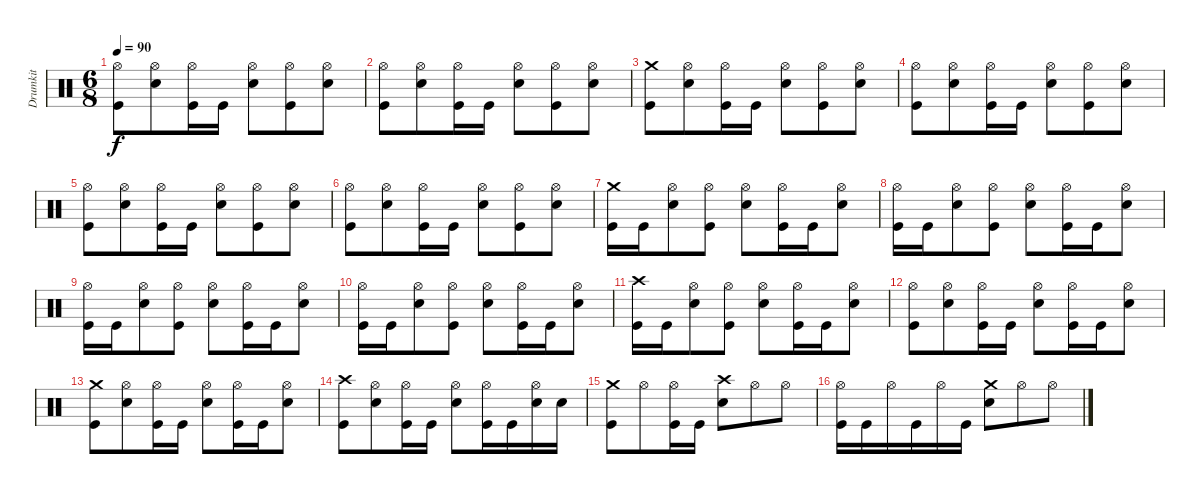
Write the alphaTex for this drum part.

\track ("Drumkit" "Drumkit") {instrument percussion}
\staff {score}
\articulation defaults
\ts (6 8)
\tempo 90
\clef neutral
\ks c
("Hi-Hat (open)" "Kick (hit)").8{dy f} ("Hi-Hat (open)" "Snare (hit) 2").8 ("Hi-Hat (open)" "Kick (hit)").16 "Kick (hit)".16 ("Hi-Hat (open)" "Snare (hit) 2").8 ("Hi-Hat (open)" "Kick (hit)").8 ("Hi-Hat (open)" "Snare (hit) 2").8 |
("Hi-Hat (open)" "Kick (hit)").8 ("Hi-Hat (open)" "Snare (hit) 2").8 ("Hi-Hat (open)" "Kick (hit)").16 "Kick (hit)".16 ("Hi-Hat (open)" "Snare (hit) 2").8 ("Hi-Hat (open)" "Kick (hit)").8 ("Hi-Hat (open)" "Snare (hit) 2").8 |
("Crash medium (hit)" "Kick (hit)").8 ("Hi-Hat (open)" "Snare (hit) 2").8 ("Hi-Hat (open)" "Kick (hit)").16 "Kick (hit)".16 ("Hi-Hat (open)" "Snare (hit) 2").8 ("Hi-Hat (open)" "Kick (hit)").8 ("Hi-Hat (open)" "Snare (hit) 2").8 |
("Hi-Hat (open)" "Kick (hit)").8 ("Hi-Hat (open)" "Snare (hit) 2").8 ("Hi-Hat (open)" "Kick (hit)").16 "Kick (hit)".16 ("Hi-Hat (open)" "Snare (hit) 2").8 ("Hi-Hat (open)" "Kick (hit)").8 ("Hi-Hat (open)" "Snare (hit) 2").8 |
("Hi-Hat (open)" "Kick (hit)").8 ("Hi-Hat (open)" "Snare (hit) 2").8 ("Hi-Hat (open)" "Kick (hit)").16 "Kick (hit)".16 ("Hi-Hat (open)" "Snare (hit) 2").8 ("Hi-Hat (open)" "Kick (hit)").8 ("Hi-Hat (open)" "Snare (hit) 2").8 |
("Hi-Hat (open)" "Kick (hit)").8 ("Hi-Hat (open)" "Snare (hit) 2").8 ("Hi-Hat (open)" "Kick (hit)").16 "Kick (hit)".16 ("Hi-Hat (open)" "Snare (hit) 2").8 ("Hi-Hat (open)" "Kick (hit)").8 ("Hi-Hat (open)" "Snare (hit) 2").8 |
("Crash medium (hit)" "Kick (hit)").16 "Kick (hit)".16 ("Hi-Hat (open)" "Snare (hit) 2").8 ("Hi-Hat (open)" "Kick (hit)").8 ("Hi-Hat (open)" "Snare (hit) 2").8 ("Hi-Hat (open)" "Kick (hit)").16 "Kick (hit)".16 ("Hi-Hat (open)" "Snare (hit) 2").8 |
("Hi-Hat (open)" "Kick (hit)").16 "Kick (hit)".16 ("Hi-Hat (open)" "Snare (hit) 2").8 ("Hi-Hat (open)" "Kick (hit)").8 ("Hi-Hat (open)" "Snare (hit) 2").8 ("Hi-Hat (open)" "Kick (hit)").16 "Kick (hit)".16 ("Hi-Hat (open)" "Snare (hit) 2").8 |
("Hi-Hat (open)" "Kick (hit)").16 "Kick (hit)".16 ("Hi-Hat (open)" "Snare (hit) 2").8 ("Hi-Hat (open)" "Kick (hit)").8 ("Hi-Hat (open)" "Snare (hit) 2").8 ("Hi-Hat (open)" "Kick (hit)").16 "Kick (hit)".16 ("Hi-Hat (open)" "Snare (hit) 2").8 |
("Hi-Hat (open)" "Kick (hit)").16 "Kick (hit)".16 ("Hi-Hat (open)" "Snare (hit) 2").8 ("Hi-Hat (open)" "Kick (hit)").8 ("Hi-Hat (open)" "Snare (hit) 2").8 ("Hi-Hat (open)" "Kick (hit)").16 "Kick (hit)".16 ("Hi-Hat (open)" "Snare (hit) 2").8 |
("Crash high (hit)" "Kick (hit)").16 "Kick (hit)".16 ("Hi-Hat (open)" "Snare (hit) 2").8 ("Hi-Hat (open)" "Kick (hit)").8 ("Hi-Hat (open)" "Snare (hit) 2").8 ("Hi-Hat (open)" "Kick (hit)").16 "Kick (hit)".16 ("Hi-Hat (open)" "Snare (hit) 2").8 |
("Hi-Hat (open)" "Kick (hit)").8 ("Hi-Hat (open)" "Snare (hit) 2").8 ("Hi-Hat (open)" "Kick (hit)").16 "Kick (hit)".16 ("Hi-Hat (open)" "Snare (hit) 2").8 ("Hi-Hat (open)" "Kick (hit)").16 "Kick (hit)".16 ("Hi-Hat (open)" "Snare (hit) 2").8 |
("Crash medium (hit)" "Kick (hit)").8 ("Hi-Hat (open)" "Snare (hit) 2").8 ("Hi-Hat (open)" "Kick (hit)").16 "Kick (hit)".16 ("Hi-Hat (open)" "Snare (hit) 2").8 ("Hi-Hat (open)" "Kick (hit)").16 "Kick (hit)".16 ("Hi-Hat (open)" "Snare (hit) 2").8 |
("Crash high (hit)" "Kick (hit)").8 ("Hi-Hat (open)" "Snare (hit) 2").8 ("Hi-Hat (open)" "Kick (hit)").16 "Kick (hit)".16 ("Hi-Hat (open)" "Snare (hit) 2").8 ("Hi-Hat (open)" "Kick (hit)").16 "Kick (hit)".16 ("Hi-Hat (open)" "Snare (hit) 2").16 "Snare (hit) 2".16 |
("Crash medium (hit)" "Kick (hit)").8 "Hi-Hat (open)".8 ("Hi-Hat (open)" "Kick (hit)").16 "Kick (hit)".16 ("Crash high (hit)" "Snare (hit) 2").8 "Hi-Hat (open)".8 "Hi-Hat (open)".8 |
("Hi-Hat (open)" "Kick (hit)").16 "Kick (hit)".16 "Hi-Hat (open)".16 "Kick (hit)".16 "Hi-Hat (open)".16 "Kick (hit)".16 ("Crash medium (hit)" "Snare (hit) 2").8 "Hi-Hat (open)".8 "Hi-Hat (open)".8
